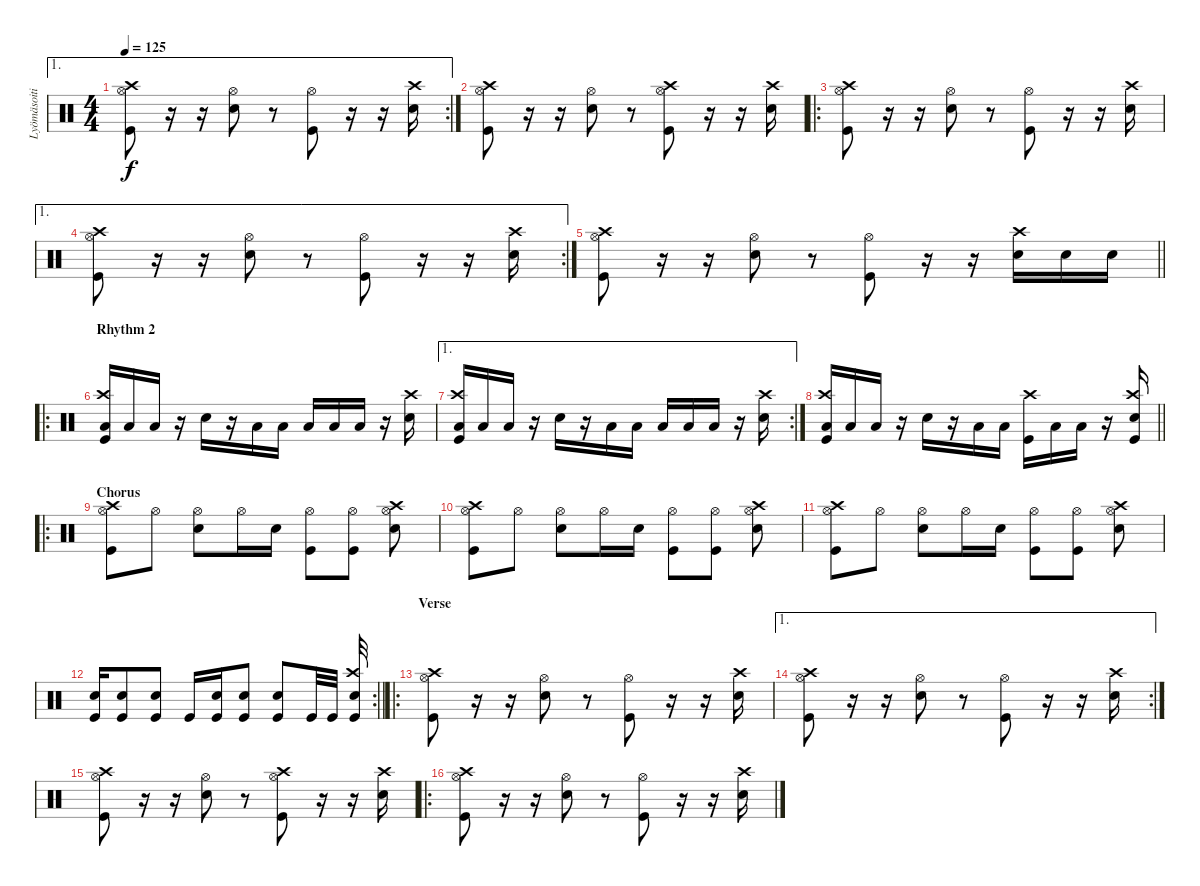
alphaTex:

\track ("Lyömäsoitin" "Lyömäsoiti") {instrument percussion}
\staff {score}
\articulation defaults
\ae 1
\rc 2
\ts (4 4)
\tempo 125
\clef neutral
\ks c
("Kick (hit)" "Hi-Hat (open)" "Crash high (hit)").8{dy f} r.16 r.16 ("Snare (hit) 2" "Hi-Hat (open)").8 r.8 ("Hi-Hat (open)" "Kick (hit)").8 r.16 r.16 ("Snare (hit) 2" "Crash high (hit)").16 |
("Kick (hit)" "Hi-Hat (open)" "Crash high (hit)").8 r.16 r.16 ("Snare (hit) 2" "Hi-Hat (open)").8 r.8 ("Hi-Hat (open)" "Kick (hit)" "Crash high (hit)").8 r.16 r.16 ("Snare (hit) 2" "Crash high (hit)").16 |
\ro
("Kick (hit)" "Hi-Hat (open)" "Crash high (hit)").8 r.16 r.16 ("Snare (hit) 2" "Hi-Hat (open)").8 r.8 ("Hi-Hat (open)" "Kick (hit)").8 r.16 r.16 ("Snare (hit) 2" "Crash high (hit)").16 |
\ae 1
\rc 2
("Kick (hit)" "Hi-Hat (open)" "Crash high (hit)").8 r.16 r.16 ("Snare (hit) 2" "Hi-Hat (open)").8 r.8 ("Hi-Hat (open)" "Kick (hit)").8 r.16 r.16 ("Snare (hit) 2" "Crash high (hit)").16 |
\barLineRight lightlight
("Kick (hit)" "Hi-Hat (open)" "Crash high (hit)").8 r.16 r.16 ("Snare (hit) 2" "Hi-Hat (open)").8 r.8 ("Hi-Hat (open)" "Kick (hit)").8 r.16 r.16 ("Snare (hit) 2" "Crash high (hit)").16 "Snare (hit) 2".16 "Snare (hit) 2".16 |
\ro
\section ("" "Rhythm 2")
("Kick (hit)" "Low Tom (hit)" "Crash high (hit)").16 "Low Tom (hit)".16 "Low Tom (hit)".16 r.16 "Snare (hit) 2".16 r.16 "Low Tom (hit)".16 "Low Tom (hit)".16 "Low Tom (hit)".16 "Low Tom (hit)".16 "Low Tom (hit)".16 r.16 ("Snare (hit) 2" "Crash high (hit)").16 |
\ae 1
\rc 2
("Kick (hit)" "Low Tom (hit)" "Crash high (hit)").16 "Low Tom (hit)".16 "Low Tom (hit)".16 r.16 "Snare (hit) 2".16 r.16 "Low Tom (hit)".16 "Low Tom (hit)".16 "Low Tom (hit)".16 "Low Tom (hit)".16 "Low Tom (hit)".16 r.16 ("Snare (hit) 2" "Crash high (hit)").16 |
\barLineRight lightlight
("Kick (hit)" "Low Tom (hit)" "Crash high (hit)").16 "Low Tom (hit)".16 "Low Tom (hit)".16 r.16 "Snare (hit) 2".16 r.16 "Low Tom (hit)".16 "Low Tom (hit)".16 ("Crash high (hit)" "Kick (hit)").16 "Low Tom (hit)".16 "Low Tom (hit)".16 r.16 ("Snare (hit) 2" "Crash high (hit)" "Kick (hit)").16 |
\ro
\section ("" "Chorus")
("Kick (hit)" "Hi-Hat (open)" "Crash high (hit)").8 "Hi-Hat (open)".8 ("Hi-Hat (open)" "Snare (hit) 2").8 "Hi-Hat (open)".16 "Snare (hit) 2".16 ("Hi-Hat (open)" "Kick (hit)").8 ("Hi-Hat (open)" "Kick (hit)").8 ("Hi-Hat (open)" "Snare (hit) 2" "Crash high (hit)").8 |
("Kick (hit)" "Hi-Hat (open)" "Crash high (hit)").8 "Hi-Hat (open)".8 ("Hi-Hat (open)" "Snare (hit) 2").8 "Hi-Hat (open)".16 "Snare (hit) 2".16 ("Hi-Hat (open)" "Kick (hit)").8 ("Hi-Hat (open)" "Kick (hit)").8 ("Hi-Hat (open)" "Snare (hit) 2" "Crash high (hit)").8 |
("Kick (hit)" "Hi-Hat (open)" "Crash high (hit)").8 "Hi-Hat (open)".8 ("Hi-Hat (open)" "Snare (hit) 2").8 "Hi-Hat (open)".16 "Snare (hit) 2".16 ("Hi-Hat (open)" "Kick (hit)").8 ("Hi-Hat (open)" "Kick (hit)").8 ("Hi-Hat (open)" "Snare (hit) 2" "Crash high (hit)").8 |
\rc 2
\barLineRight lightlight
("Kick (hit)" "Snare (hit) 2").16 ("Kick (hit)" "Snare (hit) 2").8 ("Kick (hit)" "Snare (hit) 2").8 "Kick (hit)".16 ("Snare (hit) 2" "Kick (hit)").16 ("Snare (hit) 2" "Kick (hit)").8 ("Snare (hit) 2" "Kick (hit)").8 "Kick (hit)".32 "Kick (hit)".32 ("Kick (hit)" "Crash high (hit)" "Snare (hit) 2").32 |
\ro
\section ("" "Verse")
("Kick (hit)" "Hi-Hat (open)" "Crash high (hit)").8 r.16 r.16 ("Snare (hit) 2" "Hi-Hat (open)").8 r.8 ("Hi-Hat (open)" "Kick (hit)").8 r.16 r.16 ("Snare (hit) 2" "Crash high (hit)").16 |
\ae 1
\rc 2
("Kick (hit)" "Hi-Hat (open)" "Crash high (hit)").8 r.16 r.16 ("Snare (hit) 2" "Hi-Hat (open)").8 r.8 ("Hi-Hat (open)" "Kick (hit)").8 r.16 r.16 ("Snare (hit) 2" "Crash high (hit)").16 |
("Kick (hit)" "Hi-Hat (open)" "Crash high (hit)").8 r.16 r.16 ("Snare (hit) 2" "Hi-Hat (open)").8 r.8 ("Hi-Hat (open)" "Kick (hit)" "Crash high (hit)").8 r.16 r.16 ("Snare (hit) 2" "Crash high (hit)").16 |
\ro
("Kick (hit)" "Hi-Hat (open)" "Crash high (hit)").8 r.16 r.16 ("Snare (hit) 2" "Hi-Hat (open)").8 r.8 ("Hi-Hat (open)" "Kick (hit)").8 r.16 r.16 ("Snare (hit) 2" "Crash high (hit)").16
